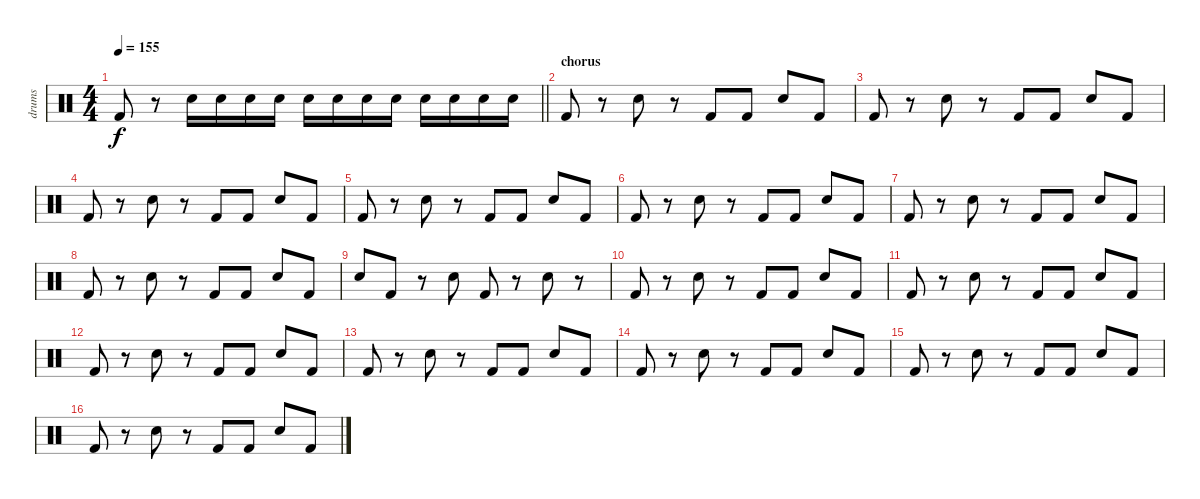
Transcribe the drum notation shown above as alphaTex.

\track ("drums" "drums") {instrument percussion}
\staff {score}
\articulation defaults
\ts (4 4)
\tempo 155
\clef neutral
\barLineRight lightlight
\ks c "Kick (hit) 2".8{dy f}
r.8 "Snare (hit) 2".16 "Snare (hit) 2".16 "Snare (hit) 2".16 "Snare (hit) 2".16 "Snare (hit) 2".16 "Snare (hit) 2".16 "Snare (hit) 2".16 "Snare (hit) 2".16 "Snare (hit) 2".16 "Snare (hit) 2".16 "Snare (hit) 2".16 "Snare (hit) 2".16 |
\section ("" "chorus")
"Kick (hit) 2".8 r.8 "Snare (hit) 2".8 r.8 "Kick (hit) 2".8 "Kick (hit) 2".8 "Snare (hit) 2".8 "Kick (hit) 2".8 |
"Kick (hit) 2".8 r.8 "Snare (hit) 2".8 r.8 "Kick (hit) 2".8 "Kick (hit) 2".8 "Snare (hit) 2".8 "Kick (hit) 2".8 |
"Kick (hit) 2".8 r.8 "Snare (hit) 2".8 r.8 "Kick (hit) 2".8 "Kick (hit) 2".8 "Snare (hit) 2".8 "Kick (hit) 2".8 |
"Kick (hit) 2".8 r.8 "Snare (hit) 2".8 r.8 "Kick (hit) 2".8 "Kick (hit) 2".8 "Snare (hit) 2".8 "Kick (hit) 2".8 |
"Kick (hit) 2".8 r.8 "Snare (hit) 2".8 r.8 "Kick (hit) 2".8 "Kick (hit) 2".8 "Snare (hit) 2".8 "Kick (hit) 2".8 |
"Kick (hit) 2".8 r.8 "Snare (hit) 2".8 r.8 "Kick (hit) 2".8 "Kick (hit) 2".8 "Snare (hit) 2".8 "Kick (hit) 2".8 |
"Kick (hit) 2".8 r.8 "Snare (hit) 2".8 r.8 "Kick (hit) 2".8 "Kick (hit) 2".8 "Snare (hit) 2".8 "Kick (hit) 2".8 |
"Snare (hit) 2".8 "Kick (hit) 2".8 r.8 "Snare (hit) 2".8 "Kick (hit) 2".8 r.8 "Snare (hit) 2".8 r.8 |
"Kick (hit) 2".8 r.8 "Snare (hit) 2".8 r.8 "Kick (hit) 2".8 "Kick (hit) 2".8 "Snare (hit) 2".8 "Kick (hit) 2".8 |
"Kick (hit) 2".8 r.8 "Snare (hit) 2".8 r.8 "Kick (hit) 2".8 "Kick (hit) 2".8 "Snare (hit) 2".8 "Kick (hit) 2".8 |
"Kick (hit) 2".8 r.8 "Snare (hit) 2".8 r.8 "Kick (hit) 2".8 "Kick (hit) 2".8 "Snare (hit) 2".8 "Kick (hit) 2".8 |
"Kick (hit) 2".8 r.8 "Snare (hit) 2".8 r.8 "Kick (hit) 2".8 "Kick (hit) 2".8 "Snare (hit) 2".8 "Kick (hit) 2".8 |
"Kick (hit) 2".8 r.8 "Snare (hit) 2".8 r.8 "Kick (hit) 2".8 "Kick (hit) 2".8 "Snare (hit) 2".8 "Kick (hit) 2".8 |
"Kick (hit) 2".8 r.8 "Snare (hit) 2".8 r.8 "Kick (hit) 2".8 "Kick (hit) 2".8 "Snare (hit) 2".8 "Kick (hit) 2".8 |
"Kick (hit) 2".8 r.8 "Snare (hit) 2".8 r.8 "Kick (hit) 2".8 "Kick (hit) 2".8 "Snare (hit) 2".8 "Kick (hit) 2".8
